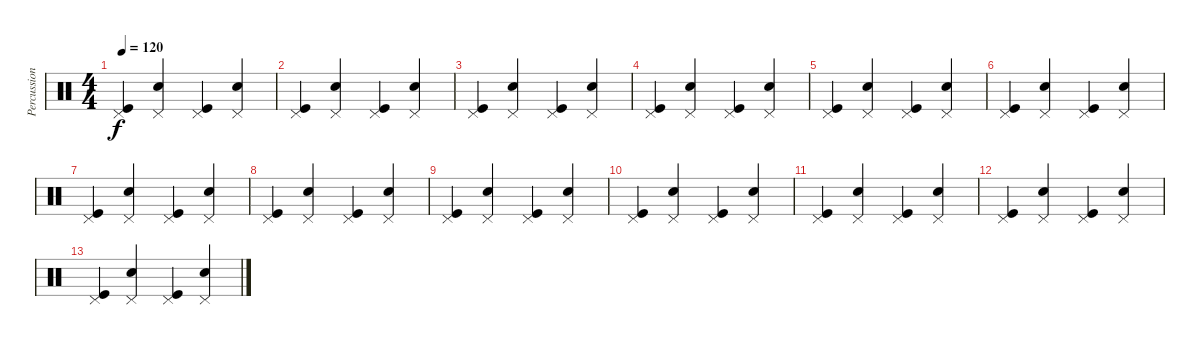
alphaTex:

\track ("Percussion" "Percussion") {instrument percussion}
\staff {score}
\articulation defaults
\ts (4 4)
\tempo 120
\clef neutral
\ks c
("Kick (hit)" "Pedal Hi-Hat (hit)").4{dy f} ("Snare (hit) 2" "Pedal Hi-Hat (hit)").4 ("Kick (hit)" "Pedal Hi-Hat (hit)").4 ("Snare (hit) 2" "Pedal Hi-Hat (hit)").4 |
("Kick (hit)" "Pedal Hi-Hat (hit)").4 ("Snare (hit) 2" "Pedal Hi-Hat (hit)").4 ("Kick (hit)" "Pedal Hi-Hat (hit)").4 ("Snare (hit) 2" "Pedal Hi-Hat (hit)").4 |
("Kick (hit)" "Pedal Hi-Hat (hit)").4 ("Snare (hit) 2" "Pedal Hi-Hat (hit)").4 ("Kick (hit)" "Pedal Hi-Hat (hit)").4 ("Snare (hit) 2" "Pedal Hi-Hat (hit)").4 |
("Kick (hit)" "Pedal Hi-Hat (hit)").4 ("Snare (hit) 2" "Pedal Hi-Hat (hit)").4 ("Kick (hit)" "Pedal Hi-Hat (hit)").4 ("Snare (hit) 2" "Pedal Hi-Hat (hit)").4 |
("Kick (hit)" "Pedal Hi-Hat (hit)").4 ("Snare (hit) 2" "Pedal Hi-Hat (hit)").4 ("Kick (hit)" "Pedal Hi-Hat (hit)").4 ("Snare (hit) 2" "Pedal Hi-Hat (hit)").4 |
("Kick (hit)" "Pedal Hi-Hat (hit)").4 ("Snare (hit) 2" "Pedal Hi-Hat (hit)").4 ("Kick (hit)" "Pedal Hi-Hat (hit)").4 ("Snare (hit) 2" "Pedal Hi-Hat (hit)").4 |
("Kick (hit)" "Pedal Hi-Hat (hit)").4 ("Snare (hit) 2" "Pedal Hi-Hat (hit)").4 ("Kick (hit)" "Pedal Hi-Hat (hit)").4 ("Snare (hit) 2" "Pedal Hi-Hat (hit)").4 |
("Kick (hit)" "Pedal Hi-Hat (hit)").4 ("Snare (hit) 2" "Pedal Hi-Hat (hit)").4 ("Kick (hit)" "Pedal Hi-Hat (hit)").4 ("Snare (hit) 2" "Pedal Hi-Hat (hit)").4 |
("Kick (hit)" "Pedal Hi-Hat (hit)").4 ("Snare (hit) 2" "Pedal Hi-Hat (hit)").4 ("Kick (hit)" "Pedal Hi-Hat (hit)").4 ("Snare (hit) 2" "Pedal Hi-Hat (hit)").4 |
("Kick (hit)" "Pedal Hi-Hat (hit)").4 ("Snare (hit) 2" "Pedal Hi-Hat (hit)").4 ("Kick (hit)" "Pedal Hi-Hat (hit)").4 ("Snare (hit) 2" "Pedal Hi-Hat (hit)").4 |
("Kick (hit)" "Pedal Hi-Hat (hit)").4 ("Snare (hit) 2" "Pedal Hi-Hat (hit)").4 ("Kick (hit)" "Pedal Hi-Hat (hit)").4 ("Snare (hit) 2" "Pedal Hi-Hat (hit)").4 |
("Kick (hit)" "Pedal Hi-Hat (hit)").4 ("Snare (hit) 2" "Pedal Hi-Hat (hit)").4 ("Kick (hit)" "Pedal Hi-Hat (hit)").4 ("Snare (hit) 2" "Pedal Hi-Hat (hit)").4 |
("Kick (hit)" "Pedal Hi-Hat (hit)").4 ("Snare (hit) 2" "Pedal Hi-Hat (hit)").4 ("Kick (hit)" "Pedal Hi-Hat (hit)").4 ("Snare (hit) 2" "Pedal Hi-Hat (hit)").4
